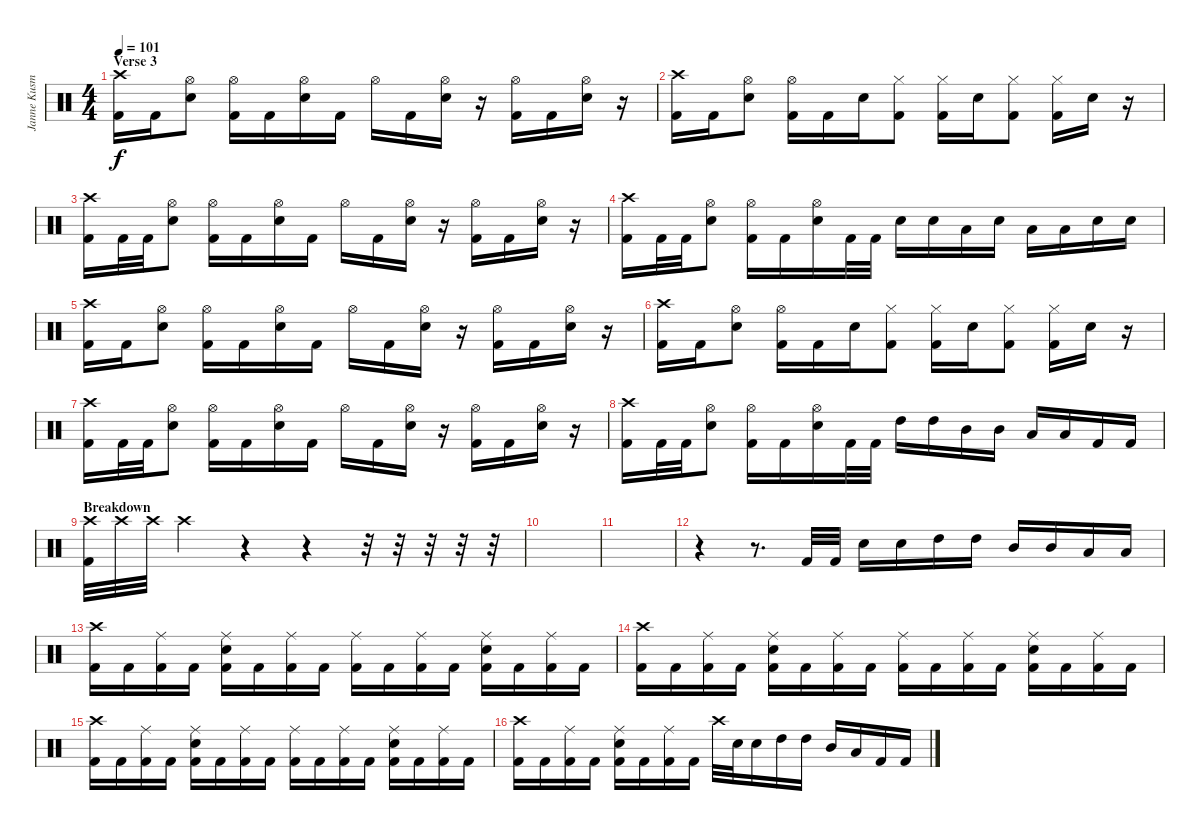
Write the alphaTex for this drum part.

\track ("Janne Kusmin" "Janne Kusm") {instrument percussion}
\staff {score}
\articulation defaults
\ts (4 4)
\section ("" "Verse 3")
\tempo 101
\clef neutral
\ks c
("Crash high (hit)" "Kick (hit) 2").16{dy f} "Kick (hit) 2".16 ("Hi-Hat (open)" "Snare (hit) 2").8 ("Hi-Hat (open)" "Kick (hit) 2").16 "Kick (hit) 2".16 ("Hi-Hat (open)" "Snare (hit) 2").16 "Kick (hit) 2".16 "Hi-Hat (open)".16 "Kick (hit) 2".16 ("Hi-Hat (open)" "Snare (hit) 2").16 r.16 ("Hi-Hat (open)" "Kick (hit) 2").16 "Kick (hit) 2".16 ("Hi-Hat (open)" "Snare (hit) 2").16 r.16 |
("Crash high (hit)" "Kick (hit) 2").16 "Kick (hit) 2".16 ("Hi-Hat (open)" "Snare (hit) 2").8 ("Hi-Hat (open)" "Kick (hit) 2").16 "Kick (hit) 2".16 "Snare (hit) 2".16 ("Hi-Hat (closed)" "Kick (hit) 2").8 ("Hi-Hat (closed)" "Kick (hit) 2").16 "Snare (hit) 2".16 ("Hi-Hat (closed)" "Kick (hit) 2").8 ("Hi-Hat (closed)" "Kick (hit) 2").16 "Snare (hit) 2".16 r.16 |
("Crash high (hit)" "Kick (hit) 2").16 "Kick (hit) 2".32 "Kick (hit) 2".32 ("Hi-Hat (open)" "Snare (hit) 2").8 ("Hi-Hat (open)" "Kick (hit) 2").16 "Kick (hit) 2".16 ("Hi-Hat (open)" "Snare (hit) 2").16 "Kick (hit) 2".16 "Hi-Hat (open)".16 "Kick (hit) 2".16 ("Hi-Hat (open)" "Snare (hit) 2").16 r.16 ("Hi-Hat (open)" "Kick (hit) 2").16 "Kick (hit) 2".16 ("Hi-Hat (open)" "Snare (hit) 2").16 r.16 |
("Crash high (hit)" "Kick (hit) 2").16 "Kick (hit) 2".32 "Kick (hit) 2".32 ("Hi-Hat (open)" "Snare (hit) 2").8 ("Hi-Hat (open)" "Kick (hit) 2").16 "Kick (hit) 2".16 ("Hi-Hat (open)" "Snare (hit) 2").16 "Kick (hit) 2".32 "Kick (hit) 2".32 "Snare (hit) 2".16 "Snare (hit) 2".16 "Low Tom (hit)".16 "Snare (hit) 2".16 "Low Tom (hit)".16 "Low Tom (hit)".16 "Snare (hit) 2".16 "Snare (hit) 2".16 |
("Crash high (hit)" "Kick (hit) 2").16 "Kick (hit) 2".16 ("Hi-Hat (open)" "Snare (hit) 2").8 ("Hi-Hat (open)" "Kick (hit) 2").16 "Kick (hit) 2".16 ("Hi-Hat (open)" "Snare (hit) 2").16 "Kick (hit) 2".16 "Hi-Hat (open)".16 "Kick (hit) 2".16 ("Hi-Hat (open)" "Snare (hit) 2").16 r.16 ("Hi-Hat (open)" "Kick (hit) 2").16 "Kick (hit) 2".16 ("Hi-Hat (open)" "Snare (hit) 2").16 r.16 |
("Crash high (hit)" "Kick (hit) 2").16 "Kick (hit) 2".16 ("Hi-Hat (open)" "Snare (hit) 2").8 ("Hi-Hat (open)" "Kick (hit) 2").16 "Kick (hit) 2".16 "Snare (hit) 2".16 ("Hi-Hat (closed)" "Kick (hit) 2").8 ("Hi-Hat (closed)" "Kick (hit) 2").16 "Snare (hit) 2".16 ("Hi-Hat (closed)" "Kick (hit) 2").8 ("Hi-Hat (closed)" "Kick (hit) 2").16 "Snare (hit) 2".16 r.16 |
("Crash high (hit)" "Kick (hit) 2").16 "Kick (hit) 2".32 "Kick (hit) 2".32 ("Hi-Hat (open)" "Snare (hit) 2").8 ("Hi-Hat (open)" "Kick (hit) 2").16 "Kick (hit) 2".16 ("Hi-Hat (open)" "Snare (hit) 2").16 "Kick (hit) 2".16 "Hi-Hat (open)".16 "Kick (hit) 2".16 ("Hi-Hat (open)" "Snare (hit) 2").16 r.16 ("Hi-Hat (open)" "Kick (hit) 2").16 "Kick (hit) 2".16 ("Hi-Hat (open)" "Snare (hit) 2").16 r.16 |
("Crash high (hit)" "Kick (hit) 2").16 "Kick (hit) 2".32 "Kick (hit) 2".32 ("Hi-Hat (open)" "Snare (hit) 2").8 ("Hi-Hat (open)" "Kick (hit) 2").16 "Kick (hit) 2".16 ("Hi-Hat (open)" "Snare (hit) 2").16 "Kick (hit) 2".32 "Kick (hit) 2".32 "High Tom (hit)".16 "High Tom (hit)".16 "Mid Tom (hit)".16 "Mid Tom (hit)".16 "Low Tom (hit)".16 "Low Tom (hit)".16 "Kick (hit) 2".16 "Kick (hit) 2".16 |
\section ("" "Breakdown")
("Crash high (hit)" "Kick (hit) 2").32 "Crash high (hit)".32 "Crash high (hit)".32 "Crash high (hit)".4 r.4 r.4 r.32 r.32 r.32 r.32 r.32 |
|
|
r.4 r.8{d} "Kick (hit) 2".32 "Kick (hit) 2".32 "Snare (hit) 2".16 "Snare (hit) 2".16 "High Tom (hit)".16 "High Tom (hit)".16 "Mid Tom (hit)".16 "Mid Tom (hit)".16 "Low Tom (hit)".16 "Low Tom (hit)".16 |
("Crash high (hit)" "Kick (hit) 2").16 "Kick (hit) 2".16 ("Ride (middle)" "Kick (hit) 2").16 "Kick (hit) 2".16 ("Ride (middle)" "Snare (hit) 2" "Kick (hit) 2").16 "Kick (hit) 2".16 ("Ride (middle)" "Kick (hit) 2").16 "Kick (hit) 2".16 ("Ride (middle)" "Kick (hit) 2").16 "Kick (hit) 2".16 ("Ride (middle)" "Kick (hit) 2").16 "Kick (hit) 2".16 ("Ride (middle)" "Snare (hit) 2" "Kick (hit) 2").16 "Kick (hit) 2".16 ("Ride (middle)" "Kick (hit) 2").16 "Kick (hit) 2".16 |
("Crash high (hit)" "Kick (hit) 2").16 "Kick (hit) 2".16 ("Ride (middle)" "Kick (hit) 2").16 "Kick (hit) 2".16 ("Ride (middle)" "Snare (hit) 2" "Kick (hit) 2").16 "Kick (hit) 2".16 ("Ride (middle)" "Kick (hit) 2").16 "Kick (hit) 2".16 ("Ride (middle)" "Kick (hit) 2").16 "Kick (hit) 2".16 ("Ride (middle)" "Kick (hit) 2").16 "Kick (hit) 2".16 ("Ride (middle)" "Snare (hit) 2" "Kick (hit) 2").16 "Kick (hit) 2".16 ("Ride (middle)" "Kick (hit) 2").16 "Kick (hit) 2".16 |
("Crash high (hit)" "Kick (hit) 2").16 "Kick (hit) 2".16 ("Ride (middle)" "Kick (hit) 2").16 "Kick (hit) 2".16 ("Ride (middle)" "Snare (hit) 2" "Kick (hit) 2").16 "Kick (hit) 2".16 ("Ride (middle)" "Kick (hit) 2").16 "Kick (hit) 2".16 ("Ride (middle)" "Kick (hit) 2").16 "Kick (hit) 2".16 ("Ride (middle)" "Kick (hit) 2").16 "Kick (hit) 2".16 ("Ride (middle)" "Snare (hit) 2" "Kick (hit) 2").16 "Kick (hit) 2".16 ("Ride (middle)" "Kick (hit) 2").16 "Kick (hit) 2".16 |
("Crash high (hit)" "Kick (hit) 2").16 "Kick (hit) 2".16 ("Ride (middle)" "Kick (hit) 2").16 "Kick (hit) 2".16 ("Ride (middle)" "Snare (hit) 2" "Kick (hit) 2").16 "Kick (hit) 2".16 ("Ride (middle)" "Kick (hit) 2").16 "Kick (hit) 2".16 "Crash high (hit)".32 "Snare (hit) 2".32 "Snare (hit) 2".16 "High Tom (hit)".16 "High Tom (hit)".16 "Mid Tom (hit)".16 "Low Tom (hit)".16 "Kick (hit) 2".16 "Kick (hit) 2".16
